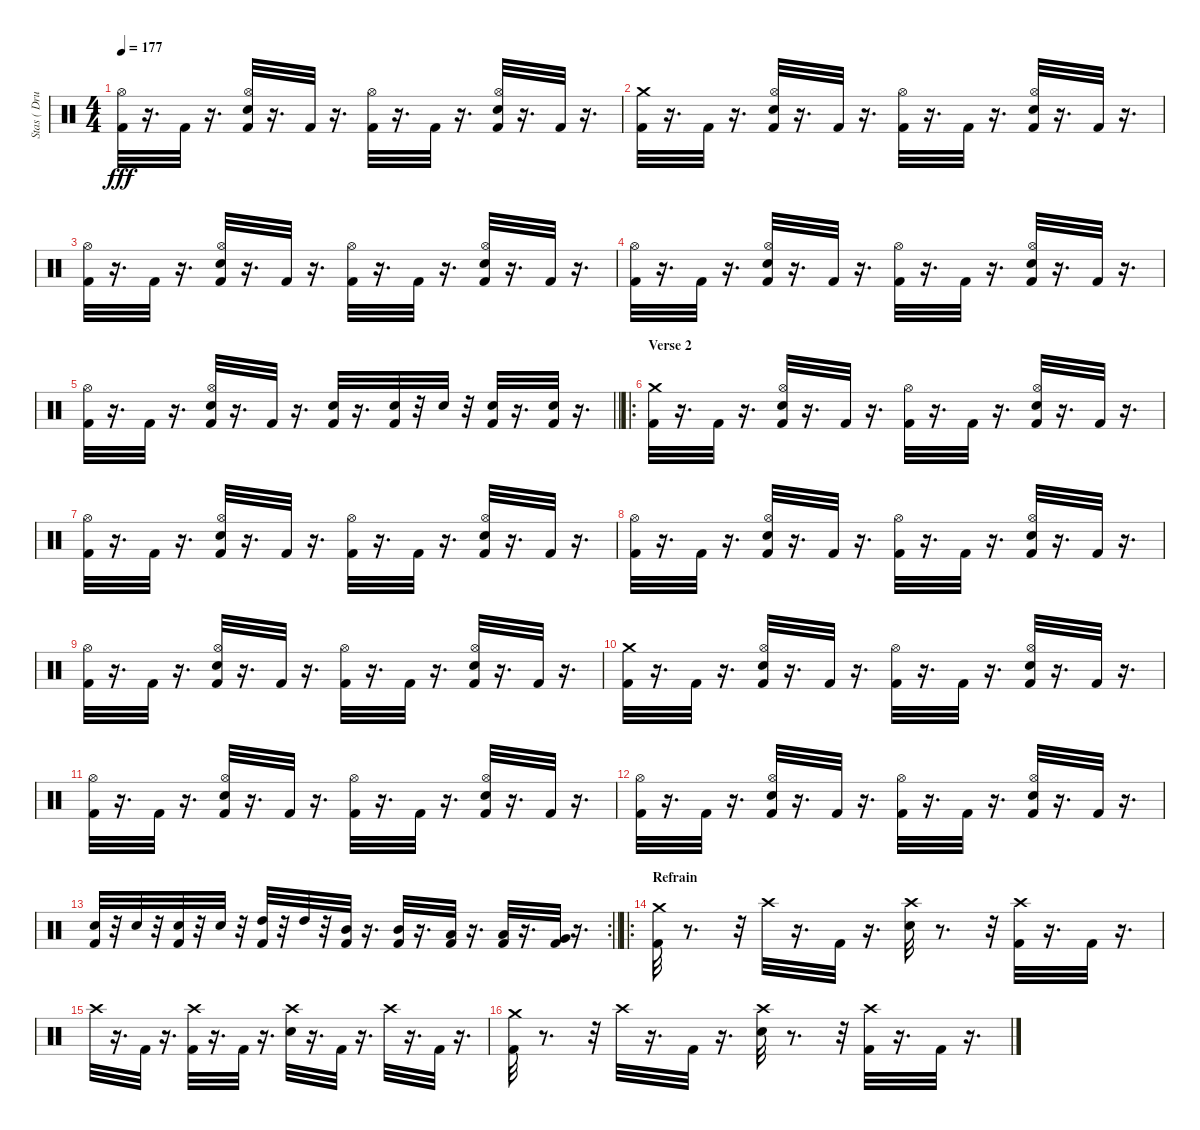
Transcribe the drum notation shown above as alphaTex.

\track ("Stas ( Drums )" "Stas ( Dru") {instrument percussion}
\staff {score}
\articulation defaults
\ts (4 4)
\tempo 177
\clef neutral
\ks c
("Kick (hit) 2" "Hi-Hat (open)").32{dy fff} r.16{d} "Kick (hit) 2".32 r.16{d} ("Kick (hit) 2" "Electric Snare (hit)" "Hi-Hat (open)").32 r.16{d} "Kick (hit) 2".32 r.16{d} ("Kick (hit) 2" "Hi-Hat (open)").32 r.16{d} "Kick (hit) 2".32 r.16{d} ("Kick (hit) 2" "Electric Snare (hit)" "Hi-Hat (open)").32 r.16{d} "Kick (hit) 2".32 r.16{d} |
("Kick (hit) 2" "Crash medium (hit)").32 r.16{d} "Kick (hit) 2".32 r.16{d} ("Kick (hit) 2" "Electric Snare (hit)" "Hi-Hat (open)").32 r.16{d} "Kick (hit) 2".32 r.16{d} ("Kick (hit) 2" "Hi-Hat (open)").32 r.16{d} "Kick (hit) 2".32 r.16{d} ("Kick (hit) 2" "Electric Snare (hit)" "Hi-Hat (open)").32 r.16{d} "Kick (hit) 2".32 r.16{d} |
("Kick (hit) 2" "Hi-Hat (open)").32 r.16{d} "Kick (hit) 2".32 r.16{d} ("Kick (hit) 2" "Electric Snare (hit)" "Hi-Hat (open)").32 r.16{d} "Kick (hit) 2".32 r.16{d} ("Kick (hit) 2" "Hi-Hat (open)").32 r.16{d} "Kick (hit) 2".32 r.16{d} ("Kick (hit) 2" "Electric Snare (hit)" "Hi-Hat (open)").32 r.16{d} "Kick (hit) 2".32 r.16{d} |
("Kick (hit) 2" "Hi-Hat (open)").32 r.16{d} "Kick (hit) 2".32 r.16{d} ("Kick (hit) 2" "Electric Snare (hit)" "Hi-Hat (open)").32 r.16{d} "Kick (hit) 2".32 r.16{d} ("Kick (hit) 2" "Hi-Hat (open)").32 r.16{d} "Kick (hit) 2".32 r.16{d} ("Kick (hit) 2" "Electric Snare (hit)" "Hi-Hat (open)").32 r.16{d} "Kick (hit) 2".32 r.16{d} |
\barLineRight lightlight
("Kick (hit) 2" "Hi-Hat (open)").32 r.16{d} "Kick (hit) 2".32 r.16{d} ("Kick (hit) 2" "Electric Snare (hit)" "Hi-Hat (open)").32 r.16{d} "Kick (hit) 2".32 r.16{d} ("Kick (hit) 2" "Electric Snare (hit)").32 r.16{d} ("Kick (hit) 2" "Electric Snare (hit)").32 r.32 "Electric Snare (hit)".32 r.32 ("Kick (hit) 2" "Electric Snare (hit)").32 r.16{d} ("Kick (hit) 2" "Electric Snare (hit)").32 r.16{d} |
\ro
\section ("" "Verse 2")
("Kick (hit) 2" "Crash medium (hit)").32 r.16{d} "Kick (hit) 2".32 r.16{d} ("Kick (hit) 2" "Electric Snare (hit)" "Hi-Hat (open)").32 r.16{d} "Kick (hit) 2".32 r.16{d} ("Kick (hit) 2" "Hi-Hat (open)").32 r.16{d} "Kick (hit) 2".32 r.16{d} ("Kick (hit) 2" "Electric Snare (hit)" "Hi-Hat (open)").32 r.16{d} "Kick (hit) 2".32 r.16{d} |
("Kick (hit) 2" "Hi-Hat (open)").32 r.16{d} "Kick (hit) 2".32 r.16{d} ("Kick (hit) 2" "Electric Snare (hit)" "Hi-Hat (open)").32 r.16{d} "Kick (hit) 2".32 r.16{d} ("Kick (hit) 2" "Hi-Hat (open)").32 r.16{d} "Kick (hit) 2".32 r.16{d} ("Kick (hit) 2" "Electric Snare (hit)" "Hi-Hat (open)").32 r.16{d} "Kick (hit) 2".32 r.16{d} |
("Kick (hit) 2" "Hi-Hat (open)").32 r.16{d} "Kick (hit) 2".32 r.16{d} ("Kick (hit) 2" "Electric Snare (hit)" "Hi-Hat (open)").32 r.16{d} "Kick (hit) 2".32 r.16{d} ("Kick (hit) 2" "Hi-Hat (open)").32 r.16{d} "Kick (hit) 2".32 r.16{d} ("Kick (hit) 2" "Electric Snare (hit)" "Hi-Hat (open)").32 r.16{d} "Kick (hit) 2".32 r.16{d} |
("Kick (hit) 2" "Hi-Hat (open)").32 r.16{d} "Kick (hit) 2".32 r.16{d} ("Kick (hit) 2" "Electric Snare (hit)" "Hi-Hat (open)").32 r.16{d} "Kick (hit) 2".32 r.16{d} ("Kick (hit) 2" "Hi-Hat (open)").32 r.16{d} "Kick (hit) 2".32 r.16{d} ("Kick (hit) 2" "Electric Snare (hit)" "Hi-Hat (open)").32 r.16{d} "Kick (hit) 2".32 r.16{d} |
("Kick (hit) 2" "Crash medium (hit)").32 r.16{d} "Kick (hit) 2".32 r.16{d} ("Kick (hit) 2" "Electric Snare (hit)" "Hi-Hat (open)").32 r.16{d} "Kick (hit) 2".32 r.16{d} ("Kick (hit) 2" "Hi-Hat (open)").32 r.16{d} "Kick (hit) 2".32 r.16{d} ("Kick (hit) 2" "Electric Snare (hit)" "Hi-Hat (open)").32 r.16{d} "Kick (hit) 2".32 r.16{d} |
("Kick (hit) 2" "Hi-Hat (open)").32 r.16{d} "Kick (hit) 2".32 r.16{d} ("Kick (hit) 2" "Electric Snare (hit)" "Hi-Hat (open)").32 r.16{d} "Kick (hit) 2".32 r.16{d} ("Kick (hit) 2" "Hi-Hat (open)").32 r.16{d} "Kick (hit) 2".32 r.16{d} ("Kick (hit) 2" "Electric Snare (hit)" "Hi-Hat (open)").32 r.16{d} "Kick (hit) 2".32 r.16{d} |
("Kick (hit) 2" "Hi-Hat (open)").32 r.16{d} "Kick (hit) 2".32 r.16{d} ("Kick (hit) 2" "Electric Snare (hit)" "Hi-Hat (open)").32 r.16{d} "Kick (hit) 2".32 r.16{d} ("Kick (hit) 2" "Hi-Hat (open)").32 r.16{d} "Kick (hit) 2".32 r.16{d} ("Kick (hit) 2" "Electric Snare (hit)" "Hi-Hat (open)").32 r.16{d} "Kick (hit) 2".32 r.16{d} |
\rc 2
\barLineRight lightlight
("Kick (hit) 2" "Electric Snare (hit)").32 r.32 "Electric Snare (hit)".32 r.32 ("Kick (hit) 2" "Electric Snare (hit)").32 r.32 "Electric Snare (hit)".32 r.32 ("Kick (hit) 2" "High Tom (hit)").32 r.32 "High Tom (hit)".32 r.32 ("Kick (hit) 2" "Mid Tom (hit)").32 r.16{d} ("Kick (hit) 2" "Mid Tom (hit)").32 r.16{d} ("Kick (hit) 2" "Low Tom (hit)").32 r.16{d} ("Kick (hit) 2" "Low Tom (hit)").32 r.16{d} ("Kick (hit) 2" "Very Low Tom (hit)").32 r.16{d} |
\ro
\section ("" "Refrain")
("Kick (hit) 2" "Crash medium (hit)").32 r.8{d} r.32 "Crash high (hit)".32 r.16{d} "Kick (hit) 2".32 r.16{d} ("Electric Snare (hit)" "Crash high (hit)").32 r.8{d} r.32 ("Kick (hit) 2" "Crash high (hit)").32 r.16{d} "Kick (hit) 2".32 r.16{d} |
"Crash high (hit)".32 r.16{d} "Kick (hit) 2".32 r.16{d} ("Kick (hit) 2" "Crash high (hit)").32 r.16{d} "Kick (hit) 2".32 r.16{d} ("Electric Snare (hit)" "Crash high (hit)").32 r.16{d} "Kick (hit) 2".32 r.16{d} "Crash high (hit)".32 r.16{d} "Kick (hit) 2".32 r.16{d} |
("Kick (hit) 2" "Crash medium (hit)").32 r.8{d} r.32 "Crash high (hit)".32 r.16{d} "Kick (hit) 2".32 r.16{d} ("Electric Snare (hit)" "Crash high (hit)").32 r.8{d} r.32 ("Kick (hit) 2" "Crash high (hit)").32 r.16{d} "Kick (hit) 2".32 r.16{d}
